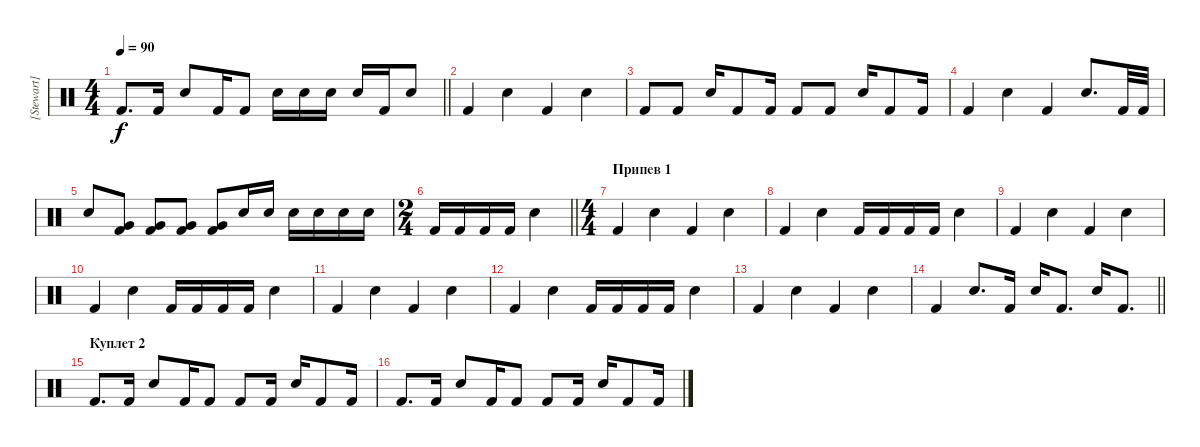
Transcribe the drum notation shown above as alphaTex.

\track ("[Stewart] (drums)" "[Stewart] ") {instrument percussion}
\staff {score}
\articulation defaults
\ts (4 4)
\tempo 90
\clef neutral
\barLineRight lightlight
\ks c "Kick (hit) 2".8{d dy f} "Kick (hit) 2".16 "Snare (hit) 2".8 "Kick (hit) 2".16 "Kick (hit) 2".8 "Snare (hit) 2".16 "Snare (hit) 2".16 "Snare (hit) 2".16 "Snare (hit) 2".16 "Kick (hit) 2".16 "Snare (hit) 2".8
|
"Kick (hit) 2".4 "Snare (hit) 2".4 "Kick (hit) 2".4 "Snare (hit) 2".4 |
"Kick (hit) 2".8 "Kick (hit) 2".8 "Snare (hit) 2".16 "Kick (hit) 2".8 "Kick (hit) 2".16 "Kick (hit) 2".8 "Kick (hit) 2".8 "Snare (hit) 2".16 "Kick (hit) 2".8 "Kick (hit) 2".16 |
"Kick (hit) 2".4 "Snare (hit) 2".4 "Kick (hit) 2".4 "Snare (hit) 2".8{d} "Kick (hit) 2".32 "Kick (hit) 2".32 |
"Snare (hit) 2".8 ("Kick (hit) 2" "Very Low Tom (hit)").8 ("Kick (hit) 2" "Very Low Tom (hit)").8 ("Kick (hit) 2" "Very Low Tom (hit)").8 ("Kick (hit) 2" "Very Low Tom (hit)").8 "Snare (hit) 2".16 "Snare (hit) 2".16 "Snare (hit) 2".16 "Snare (hit) 2".16 "Snare (hit) 2".16 "Snare (hit) 2".16 |
\ts (2 4)
\barLineRight lightlight "Kick (hit) 2".16 "Kick (hit) 2".16 "Kick (hit) 2".16 "Kick (hit) 2".16 "Snare (hit) 2".4
|
\ts (4 4)
\section ("" "Припев 1")
"Kick (hit) 2".4 "Snare (hit) 2".4 "Kick (hit) 2".4 "Snare (hit) 2".4 |
"Kick (hit) 2".4 "Snare (hit) 2".4 "Kick (hit) 2".16 "Kick (hit) 2".16 "Kick (hit) 2".16 "Kick (hit) 2".16 "Snare (hit) 2".4 |
"Kick (hit) 2".4 "Snare (hit) 2".4 "Kick (hit) 2".4 "Snare (hit) 2".4 |
"Kick (hit) 2".4 "Snare (hit) 2".4 "Kick (hit) 2".16 "Kick (hit) 2".16 "Kick (hit) 2".16 "Kick (hit) 2".16 "Snare (hit) 2".4 |
"Kick (hit) 2".4 "Snare (hit) 2".4 "Kick (hit) 2".4 "Snare (hit) 2".4 |
"Kick (hit) 2".4 "Snare (hit) 2".4 "Kick (hit) 2".16 "Kick (hit) 2".16 "Kick (hit) 2".16 "Kick (hit) 2".16 "Snare (hit) 2".4 |
"Kick (hit) 2".4 "Snare (hit) 2".4 "Kick (hit) 2".4 "Snare (hit) 2".4 |
\barLineRight lightlight "Kick (hit) 2".4 "Snare (hit) 2".8{d} "Kick (hit) 2".16 "Snare (hit) 2".16 "Kick (hit) 2".8{d} "Snare (hit) 2".16 "Kick (hit) 2".8{d}
|
\section ("" "Куплет 2")
"Kick (hit) 2".8{d} "Kick (hit) 2".16 "Snare (hit) 2".8 "Kick (hit) 2".16 "Kick (hit) 2".8 "Kick (hit) 2".8 "Kick (hit) 2".16 "Snare (hit) 2".16 "Kick (hit) 2".8 "Kick (hit) 2".16 |
"Kick (hit) 2".8{d} "Kick (hit) 2".16 "Snare (hit) 2".8 "Kick (hit) 2".16 "Kick (hit) 2".8 "Kick (hit) 2".8 "Kick (hit) 2".16 "Snare (hit) 2".16 "Kick (hit) 2".8 "Kick (hit) 2".16
